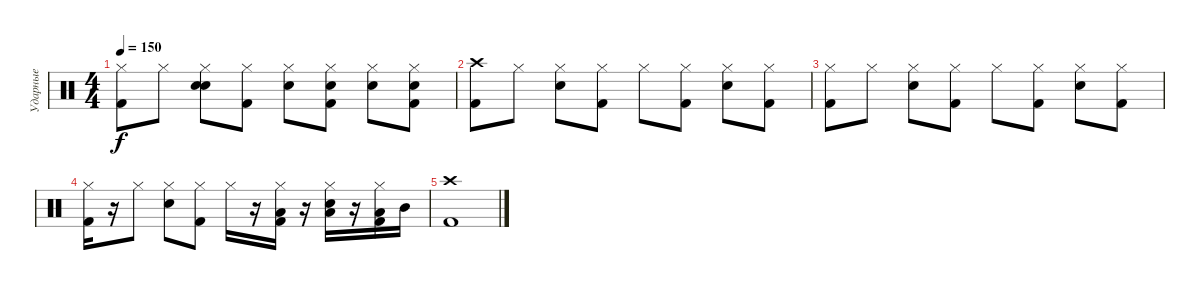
\track ("Ударные" "Ударные") {instrument percussion}
\staff {score}
\articulation defaults
\ts (4 4)
\tempo 150
\clef neutral
\ks c
("Hi-Hat (closed)" "Kick (hit) 2").8{dy f} "Hi-Hat (closed)".8 ("Hi-Hat (closed)" "Hand Clap (hit)" "Snare (hit) 2").8 ("Hi-Hat (closed)" "Kick (hit) 2").8 ("Hi-Hat (closed)" "Hand Clap (hit)").8 ("Hi-Hat (closed)" "Hand Clap (hit)" "Kick (hit) 2").8 ("Hi-Hat (closed)" "Snare (hit) 2").8 ("Hi-Hat (closed)" "Hand Clap (hit)" "Kick (hit) 2").8 |
("Crash high (hit)" "Kick (hit) 2").8 "Hi-Hat (closed)".8 ("Hi-Hat (closed)" "Snare (hit) 2").8 ("Hi-Hat (closed)" "Kick (hit) 2").8 "Hi-Hat (closed)".8 ("Hi-Hat (closed)" "Kick (hit) 2").8 ("Hi-Hat (closed)" "Snare (hit) 2").8 ("Hi-Hat (closed)" "Kick (hit) 2").8 |
("Hi-Hat (closed)" "Kick (hit) 2").8 "Hi-Hat (closed)".8 ("Hi-Hat (closed)" "Snare (hit) 2").8 ("Hi-Hat (closed)" "Kick (hit) 2").8 "Hi-Hat (closed)".8 ("Hi-Hat (closed)" "Kick (hit) 2").8 ("Hi-Hat (closed)" "Snare (hit) 2").8 ("Hi-Hat (closed)" "Kick (hit) 2").8 |
("Hi-Hat (closed)" "Kick (hit) 2").16 r.16 "Hi-Hat (closed)".8 ("Hi-Hat (closed)" "Snare (hit) 2").8 ("Hi-Hat (closed)" "Kick (hit) 2").8 "Hi-Hat (closed)".16 r.16 ("Low Tom (hit)" "Hi-Hat (closed)" "Kick (hit) 2").16 r.16 ("Low Tom (hit)" "Hi-Hat (closed)" "Snare (hit) 2").16 r.16 ("Low Tom (hit)" "Hi-Hat (closed)" "Kick (hit) 2").16 "Mid Tom (hit)".16 |
("Crash high (hit)" "Kick (hit) 2").1
